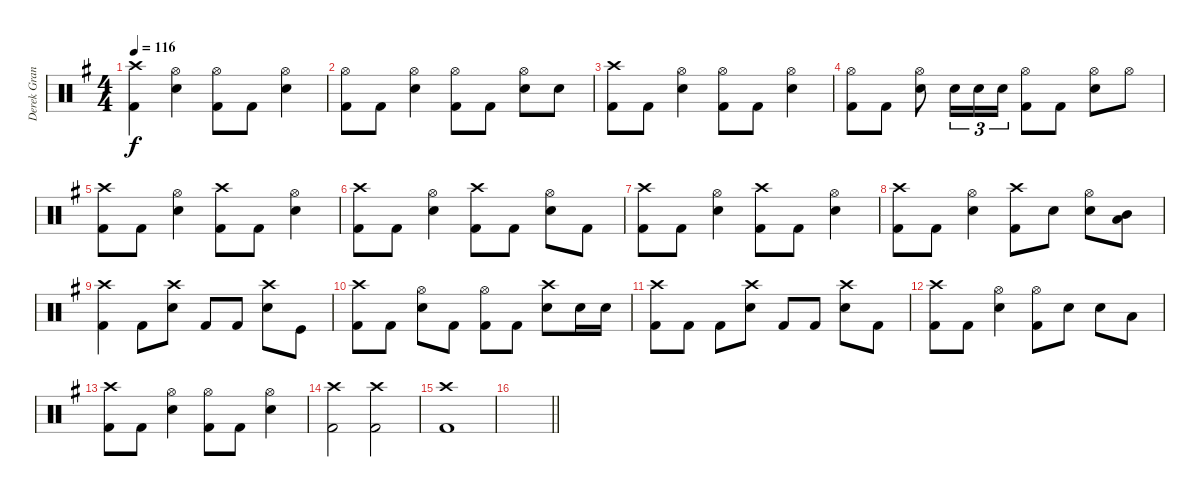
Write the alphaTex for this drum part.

\track ("Derek Grant - Drums" "Derek Gran") {instrument percussion}
\staff {score}
\articulation defaults
\ts (4 4)
\tempo 116
\clef neutral
\ks g
("Crash high (hit)" "Kick (hit) 2").4{dy f} ("Snare (hit) 2" "Hi-Hat (open)").4 ("Kick (hit) 2" "Hi-Hat (open)").8 "Kick (hit) 2".8 ("Snare (hit) 2" "Hi-Hat (open)").4 |
("Kick (hit) 2" "Hi-Hat (open)").8 "Kick (hit) 2".8 ("Snare (hit) 2" "Hi-Hat (open)").4 ("Kick (hit) 2" "Hi-Hat (open)").8 "Kick (hit) 2".8 ("Snare (hit) 2" "Hi-Hat (open)").8 "Snare (hit) 2".8 |
("Crash high (hit)" "Kick (hit) 2").8 "Kick (hit) 2".8 ("Snare (hit) 2" "Hi-Hat (open)").4 ("Kick (hit) 2" "Hi-Hat (open)").8 "Kick (hit) 2".8 ("Snare (hit) 2" "Hi-Hat (open)").4 |
("Kick (hit) 2" "Hi-Hat (open)").8 "Kick (hit) 2".8 ("Snare (hit) 2" "Hi-Hat (open)").8 "Snare (hit) 2".16{tu (3 2)} "Snare (hit) 2".16{tu (3 2)} "Snare (hit) 2".16{tu (3 2)} ("Kick (hit) 2" "Hi-Hat (open)").8 "Kick (hit) 2".8 ("Snare (hit) 2" "Hi-Hat (open)").8 "Hi-Hat (open)".8 |
("Kick (hit) 2" "Crash high (hit)").8 "Kick (hit) 2".8 ("Snare (hit) 2" "Hi-Hat (open)").4 ("Kick (hit) 2" "Crash high (hit)").8 "Kick (hit) 2".8 ("Snare (hit) 2" "Hi-Hat (open)").4 |
("Kick (hit) 2" "Crash high (hit)").8 "Kick (hit) 2".8 ("Snare (hit) 2" "Hi-Hat (open)").4 ("Kick (hit) 2" "Crash high (hit)").8 "Kick (hit) 2".8 ("Snare (hit) 2" "Hi-Hat (open)").8 "Kick (hit) 2".8 |
("Kick (hit) 2" "Crash high (hit)").8 "Kick (hit) 2".8 ("Snare (hit) 2" "Hi-Hat (open)").4 ("Kick (hit) 2" "Crash high (hit)").8 "Kick (hit) 2".8 ("Snare (hit) 2" "Hi-Hat (open)").4 |
("Kick (hit) 2" "Crash high (hit)").8 "Kick (hit) 2".8 ("Snare (hit) 2" "Hi-Hat (open)").4 ("Kick (hit) 2" "Crash high (hit)").8 "Snare (hit) 2".8 ("Snare (hit) 2" "Hi-Hat (open)").8 ("Mid Tom (hit)" "Low Floor Tom (hit)").8 |
("Kick (hit) 2" "Crash high (hit)").4 "Kick (hit) 2".8 ("Snare (hit) 2" "Crash high (hit)").8 "Kick (hit) 2".8 "Kick (hit) 2".8 ("Snare (hit) 2" "Crash high (hit)").8 "Kick (hit)".8 |
("Crash high (hit)" "Kick (hit) 2").8 "Kick (hit) 2".8 ("Snare (hit) 2" "Hi-Hat (open)").8 "Kick (hit) 2".8 ("Kick (hit) 2" "Hi-Hat (open)").8 "Kick (hit) 2".8 ("Snare (hit) 2" "Crash high (hit)").8 "Snare (hit) 2".16 "Snare (hit) 2".16 |
("Kick (hit) 2" "Crash high (hit)").8 "Kick (hit) 2".8 "Kick (hit) 2".8 ("Snare (hit) 2" "Crash high (hit)").8 "Kick (hit) 2".8 "Kick (hit) 2".8 ("Snare (hit) 2" "Crash high (hit)").8 "Kick (hit) 2".8 |
("Kick (hit) 2" "Crash high (hit)").8 "Kick (hit) 2".8 ("Snare (hit) 2" "Hi-Hat (open)").4 ("Kick (hit) 2" "Hi-Hat (open)").8 "Snare (hit) 2".8 "Snare (hit) 2".8 "Low Tom (hit)".8 |
("Crash high (hit)" "Kick (hit) 2").8 "Kick (hit) 2".8 ("Snare (hit) 2" "Hi-Hat (open)").4 ("Kick (hit) 2" "Hi-Hat (open)").8 "Kick (hit) 2".8 ("Snare (hit) 2" "Hi-Hat (open)").4 |
("Crash high (hit)" "Kick (hit) 2").2 ("Crash high (hit)" "Kick (hit) 2").2 |
("Crash high (hit)" "Kick (hit) 2").1 |
\barLineRight lightlight
